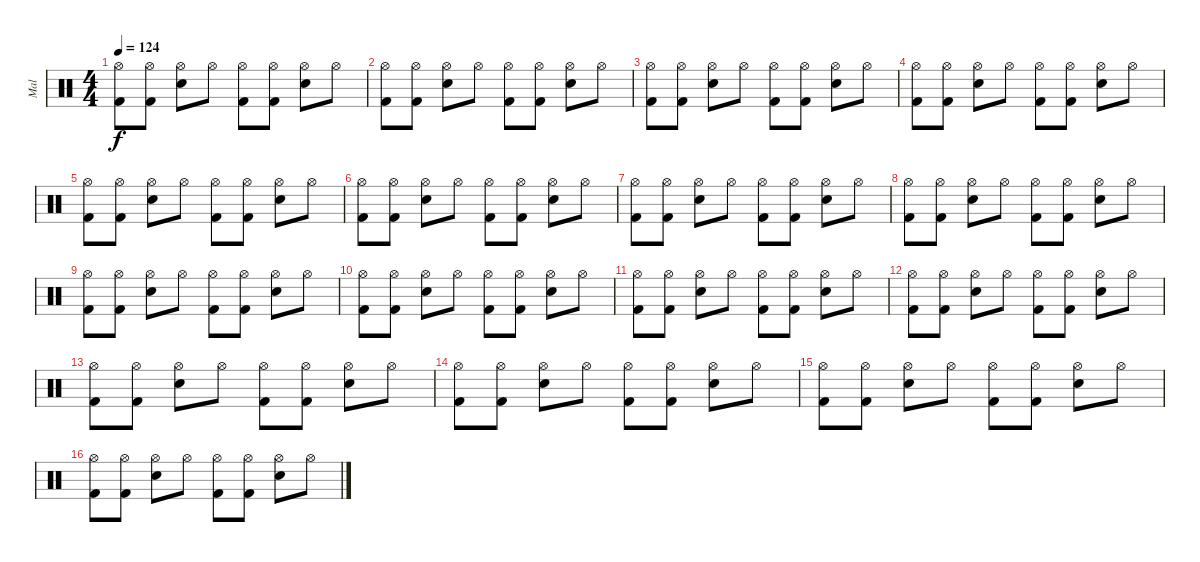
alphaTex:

\track ("Mal" "Mal") {instrument percussion}
\staff {score}
\articulation defaults
\ts (4 4)
\tempo 124
\clef neutral
\ks c
("Hi-Hat (open)" "Kick (hit) 2").8{dy f} ("Hi-Hat (open)" "Kick (hit) 2").8 ("Hi-Hat (open)" "Electric Snare (hit)").8 "Hi-Hat (open)".8 ("Hi-Hat (open)" "Kick (hit) 2").8 ("Hi-Hat (open)" "Kick (hit) 2").8 ("Hi-Hat (open)" "Electric Snare (hit)").8 "Hi-Hat (open)".8 |
("Hi-Hat (open)" "Kick (hit) 2").8 ("Hi-Hat (open)" "Kick (hit) 2").8 ("Hi-Hat (open)" "Electric Snare (hit)").8 "Hi-Hat (open)".8 ("Hi-Hat (open)" "Kick (hit) 2").8 ("Hi-Hat (open)" "Kick (hit) 2").8 ("Hi-Hat (open)" "Electric Snare (hit)").8 "Hi-Hat (open)".8 |
("Hi-Hat (open)" "Kick (hit) 2").8 ("Hi-Hat (open)" "Kick (hit) 2").8 ("Hi-Hat (open)" "Electric Snare (hit)").8 "Hi-Hat (open)".8 ("Hi-Hat (open)" "Kick (hit) 2").8 ("Hi-Hat (open)" "Kick (hit) 2").8 ("Hi-Hat (open)" "Electric Snare (hit)").8 "Hi-Hat (open)".8 |
("Hi-Hat (open)" "Kick (hit) 2").8 ("Hi-Hat (open)" "Kick (hit) 2").8 ("Hi-Hat (open)" "Electric Snare (hit)").8 "Hi-Hat (open)".8 ("Hi-Hat (open)" "Kick (hit) 2").8 ("Hi-Hat (open)" "Kick (hit) 2").8 ("Hi-Hat (open)" "Electric Snare (hit)").8 "Hi-Hat (open)".8 |
("Hi-Hat (open)" "Kick (hit) 2").8 ("Hi-Hat (open)" "Kick (hit) 2").8 ("Hi-Hat (open)" "Electric Snare (hit)").8 "Hi-Hat (open)".8 ("Hi-Hat (open)" "Kick (hit) 2").8 ("Hi-Hat (open)" "Kick (hit) 2").8 ("Hi-Hat (open)" "Electric Snare (hit)").8 "Hi-Hat (open)".8 |
("Hi-Hat (open)" "Kick (hit) 2").8 ("Hi-Hat (open)" "Kick (hit) 2").8 ("Hi-Hat (open)" "Electric Snare (hit)").8 "Hi-Hat (open)".8 ("Hi-Hat (open)" "Kick (hit) 2").8 ("Hi-Hat (open)" "Kick (hit) 2").8 ("Hi-Hat (open)" "Electric Snare (hit)").8 "Hi-Hat (open)".8 |
("Hi-Hat (open)" "Kick (hit) 2").8 ("Hi-Hat (open)" "Kick (hit) 2").8 ("Hi-Hat (open)" "Electric Snare (hit)").8 "Hi-Hat (open)".8 ("Hi-Hat (open)" "Kick (hit) 2").8 ("Hi-Hat (open)" "Kick (hit) 2").8 ("Hi-Hat (open)" "Electric Snare (hit)").8 "Hi-Hat (open)".8 |
("Hi-Hat (open)" "Kick (hit) 2").8 ("Hi-Hat (open)" "Kick (hit) 2").8 ("Hi-Hat (open)" "Electric Snare (hit)").8 "Hi-Hat (open)".8 ("Hi-Hat (open)" "Kick (hit) 2").8 ("Hi-Hat (open)" "Kick (hit) 2").8 ("Hi-Hat (open)" "Electric Snare (hit)").8 "Hi-Hat (open)".8 |
("Hi-Hat (open)" "Kick (hit) 2").8 ("Hi-Hat (open)" "Kick (hit) 2").8 ("Hi-Hat (open)" "Electric Snare (hit)").8 "Hi-Hat (open)".8 ("Hi-Hat (open)" "Kick (hit) 2").8 ("Hi-Hat (open)" "Kick (hit) 2").8 ("Hi-Hat (open)" "Electric Snare (hit)").8 "Hi-Hat (open)".8 |
("Hi-Hat (open)" "Kick (hit) 2").8 ("Hi-Hat (open)" "Kick (hit) 2").8 ("Hi-Hat (open)" "Electric Snare (hit)").8 "Hi-Hat (open)".8 ("Hi-Hat (open)" "Kick (hit) 2").8 ("Hi-Hat (open)" "Kick (hit) 2").8 ("Hi-Hat (open)" "Electric Snare (hit)").8 "Hi-Hat (open)".8 |
("Hi-Hat (open)" "Kick (hit) 2").8 ("Hi-Hat (open)" "Kick (hit) 2").8 ("Hi-Hat (open)" "Electric Snare (hit)").8 "Hi-Hat (open)".8 ("Hi-Hat (open)" "Kick (hit) 2").8 ("Hi-Hat (open)" "Kick (hit) 2").8 ("Hi-Hat (open)" "Electric Snare (hit)").8 "Hi-Hat (open)".8 |
("Hi-Hat (open)" "Kick (hit) 2").8 ("Hi-Hat (open)" "Kick (hit) 2").8 ("Hi-Hat (open)" "Electric Snare (hit)").8 "Hi-Hat (open)".8 ("Hi-Hat (open)" "Kick (hit) 2").8 ("Hi-Hat (open)" "Kick (hit) 2").8 ("Hi-Hat (open)" "Electric Snare (hit)").8 "Hi-Hat (open)".8 |
("Hi-Hat (open)" "Kick (hit) 2").8 ("Hi-Hat (open)" "Kick (hit) 2").8 ("Hi-Hat (open)" "Electric Snare (hit)").8 "Hi-Hat (open)".8 ("Hi-Hat (open)" "Kick (hit) 2").8 ("Hi-Hat (open)" "Kick (hit) 2").8 ("Hi-Hat (open)" "Electric Snare (hit)").8 "Hi-Hat (open)".8 |
("Hi-Hat (open)" "Kick (hit) 2").8 ("Hi-Hat (open)" "Kick (hit) 2").8 ("Hi-Hat (open)" "Electric Snare (hit)").8 "Hi-Hat (open)".8 ("Hi-Hat (open)" "Kick (hit) 2").8 ("Hi-Hat (open)" "Kick (hit) 2").8 ("Hi-Hat (open)" "Electric Snare (hit)").8 "Hi-Hat (open)".8 |
("Hi-Hat (open)" "Kick (hit) 2").8 ("Hi-Hat (open)" "Kick (hit) 2").8 ("Hi-Hat (open)" "Electric Snare (hit)").8 "Hi-Hat (open)".8 ("Hi-Hat (open)" "Kick (hit) 2").8 ("Hi-Hat (open)" "Kick (hit) 2").8 ("Hi-Hat (open)" "Electric Snare (hit)").8 "Hi-Hat (open)".8 |
("Hi-Hat (open)" "Kick (hit) 2").8 ("Hi-Hat (open)" "Kick (hit) 2").8 ("Hi-Hat (open)" "Electric Snare (hit)").8 "Hi-Hat (open)".8 ("Hi-Hat (open)" "Kick (hit) 2").8 ("Hi-Hat (open)" "Kick (hit) 2").8 ("Hi-Hat (open)" "Electric Snare (hit)").8 "Hi-Hat (open)".8
